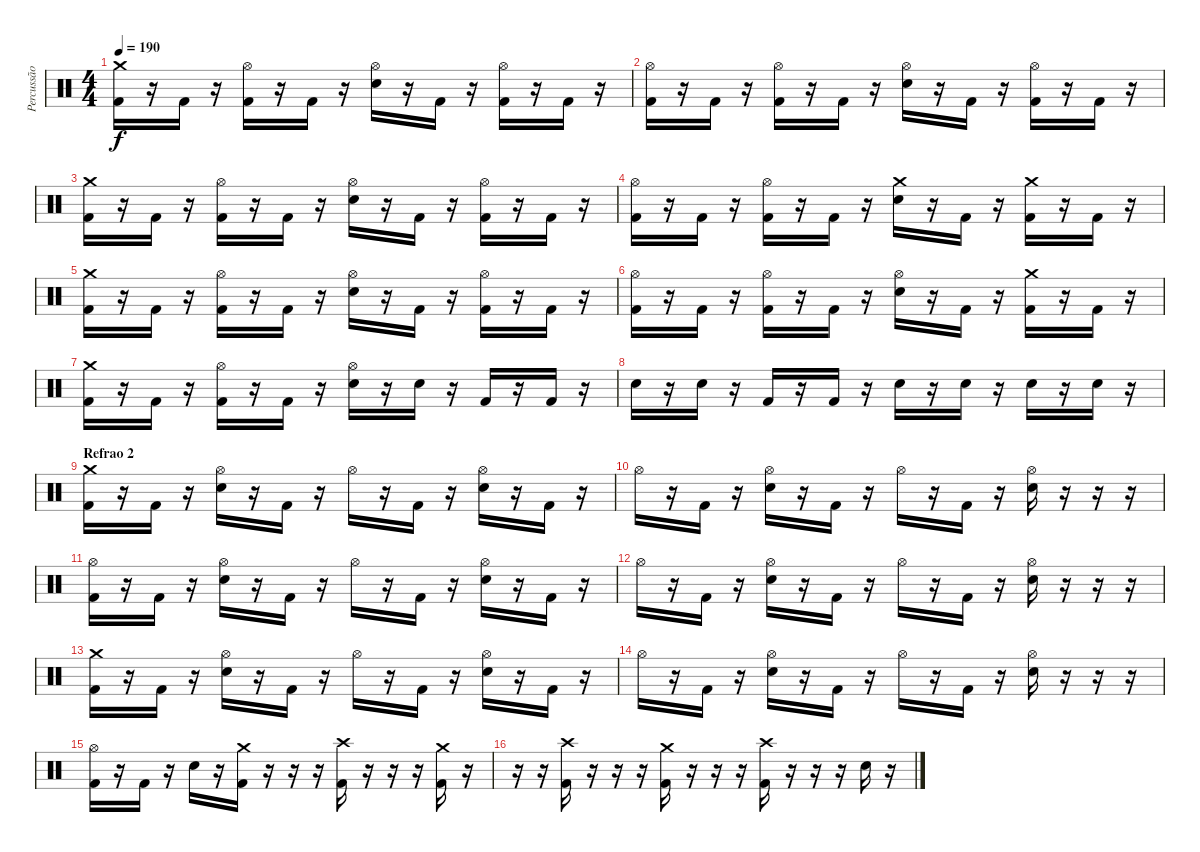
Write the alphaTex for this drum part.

\track ("Percussão" "Percussão") {instrument percussion}
\staff {score}
\articulation defaults
\ts (4 4)
\tempo 190
\clef neutral
\ks c
("Crash medium (hit)" "Kick (hit) 2").16{dy f} r.16 "Kick (hit) 2".16 r.16 ("Hi-Hat (open)" "Kick (hit) 2").16 r.16 "Kick (hit) 2".16 r.16 ("Hi-Hat (open)" "Electric Snare (hit)").16 r.16 "Kick (hit) 2".16 r.16 ("Hi-Hat (open)" "Kick (hit) 2").16 r.16 "Kick (hit) 2".16 r.16 |
("Hi-Hat (open)" "Kick (hit) 2").16 r.16 "Kick (hit) 2".16 r.16 ("Hi-Hat (open)" "Kick (hit) 2").16 r.16 "Kick (hit) 2".16 r.16 ("Hi-Hat (open)" "Electric Snare (hit)").16 r.16 "Kick (hit) 2".16 r.16 ("Hi-Hat (open)" "Kick (hit) 2").16 r.16 "Kick (hit) 2".16 r.16 |
("Crash medium (hit)" "Kick (hit) 2").16 r.16 "Kick (hit) 2".16 r.16 ("Hi-Hat (open)" "Kick (hit) 2").16 r.16 "Kick (hit) 2".16 r.16 ("Hi-Hat (open)" "Electric Snare (hit)").16 r.16 "Kick (hit) 2".16 r.16 ("Hi-Hat (open)" "Kick (hit) 2").16 r.16 "Kick (hit) 2".16 r.16 |
("Hi-Hat (open)" "Kick (hit) 2").16 r.16 "Kick (hit) 2".16 r.16 ("Hi-Hat (open)" "Kick (hit) 2").16 r.16 "Kick (hit) 2".16 r.16 ("Crash medium (hit)" "Electric Snare (hit)").16 r.16 "Kick (hit) 2".16 r.16 ("Crash medium (hit)" "Kick (hit) 2").16 r.16 "Kick (hit) 2".16 r.16 |
("Crash medium (hit)" "Kick (hit) 2").16 r.16 "Kick (hit) 2".16 r.16 ("Hi-Hat (open)" "Kick (hit) 2").16 r.16 "Kick (hit) 2".16 r.16 ("Hi-Hat (open)" "Electric Snare (hit)").16 r.16 "Kick (hit) 2".16 r.16 ("Hi-Hat (open)" "Kick (hit) 2").16 r.16 "Kick (hit) 2".16 r.16 |
("Hi-Hat (open)" "Kick (hit) 2").16 r.16 "Kick (hit) 2".16 r.16 ("Hi-Hat (open)" "Kick (hit) 2").16 r.16 "Kick (hit) 2".16 r.16 ("Hi-Hat (open)" "Electric Snare (hit)").16 r.16 "Kick (hit) 2".16 r.16 ("Crash medium (hit)" "Kick (hit) 2").16 r.16 "Kick (hit) 2".16 r.16 |
("Crash medium (hit)" "Kick (hit) 2").16 r.16 "Kick (hit) 2".16 r.16 ("Hi-Hat (open)" "Kick (hit) 2").16 r.16 "Kick (hit) 2".16 r.16 ("Hi-Hat (open)" "Electric Snare (hit)").16 r.16 "Electric Snare (hit)".16 r.16 "Kick (hit) 2".16 r.16 "Kick (hit) 2".16 r.16 |
"Electric Snare (hit)".16 r.16 "Electric Snare (hit)".16 r.16 "Kick (hit) 2".16 r.16 "Kick (hit) 2".16 r.16 "Electric Snare (hit)".16 r.16 "Electric Snare (hit)".16 r.16 "Electric Snare (hit)".16 r.16 "Electric Snare (hit)".16 r.16 |
\section ("" "Refrao 2")
("Crash medium (hit)" "Kick (hit) 2").16 r.16 "Kick (hit) 2".16 r.16 ("Hi-Hat (open)" "Electric Snare (hit)").16 r.16 "Kick (hit) 2".16 r.16 "Hi-Hat (open)".16 r.16 "Kick (hit) 2".16 r.16 ("Hi-Hat (open)" "Electric Snare (hit)").16 r.16 "Kick (hit) 2".16 r.16 |
"Hi-Hat (open)".16 r.16 "Kick (hit) 2".16 r.16 ("Hi-Hat (open)" "Electric Snare (hit)").16 r.16 "Kick (hit) 2".16 r.16 "Hi-Hat (open)".16 r.16 "Kick (hit) 2".16 r.16 ("Hi-Hat (open)" "Electric Snare (hit)").16 r.16 r.16 r.16 |
("Hi-Hat (open)" "Kick (hit) 2").16 r.16 "Kick (hit) 2".16 r.16 ("Hi-Hat (open)" "Electric Snare (hit)").16 r.16 "Kick (hit) 2".16 r.16 "Hi-Hat (open)".16 r.16 "Kick (hit) 2".16 r.16 ("Hi-Hat (open)" "Electric Snare (hit)").16 r.16 "Kick (hit) 2".16 r.16 |
"Hi-Hat (open)".16 r.16 "Kick (hit) 2".16 r.16 ("Hi-Hat (open)" "Electric Snare (hit)").16 r.16 "Kick (hit) 2".16 r.16 "Hi-Hat (open)".16 r.16 "Kick (hit) 2".16 r.16 ("Hi-Hat (open)" "Electric Snare (hit)").16 r.16 r.16 r.16 |
("Crash medium (hit)" "Kick (hit) 2").16 r.16 "Kick (hit) 2".16 r.16 ("Hi-Hat (open)" "Electric Snare (hit)").16 r.16 "Kick (hit) 2".16 r.16 "Hi-Hat (open)".16 r.16 "Kick (hit) 2".16 r.16 ("Hi-Hat (open)" "Electric Snare (hit)").16 r.16 "Kick (hit) 2".16 r.16 |
"Hi-Hat (open)".16 r.16 "Kick (hit) 2".16 r.16 ("Hi-Hat (open)" "Electric Snare (hit)").16 r.16 "Kick (hit) 2".16 r.16 "Hi-Hat (open)".16 r.16 "Kick (hit) 2".16 r.16 ("Hi-Hat (open)" "Electric Snare (hit)").16 r.16 r.16 r.16 |
("Hi-Hat (open)" "Kick (hit) 2").16 r.16 "Kick (hit) 2".16 r.16 "Electric Snare (hit)".16 r.16 ("Crash medium (hit)" "Kick (hit) 2").16 r.16 r.16 r.16 ("Crash high (hit)" "Kick (hit) 2").16 r.16 r.16 r.16 ("Crash medium (hit)" "Kick (hit) 2").16 r.16 |
r.16 r.16 ("Crash high (hit)" "Kick (hit) 2").16 r.16 r.16 r.16 ("Crash medium (hit)" "Kick (hit) 2").16 r.16 r.16 r.16 ("Crash high (hit)" "Kick (hit) 2").16 r.16 r.16 r.16 "Electric Snare (hit)".16 r.16
